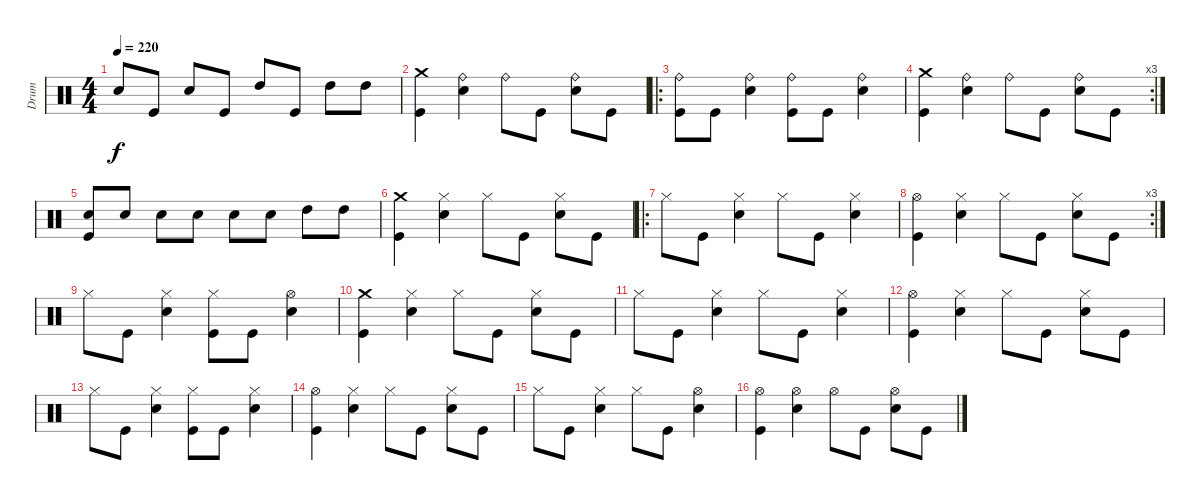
\track ("Drum" "Drum") {instrument percussion}
\staff {score}
\articulation defaults
\ts (4 4)
\tempo 220
\clef neutral
\ks c "Snare (hit) 2".8{dy f} "Kick (hit)".8 "Snare (hit) 2".8 "Kick (hit)".8 "High Tom (hit)".8 "Kick (hit)".8 "High Tom (hit)".8 "High Tom (hit)".8
|
("Crash medium (hit)" "Kick (hit)").4 ("Ride (bell)" "Snare (hit) 2").4 "Ride (bell)".8 "Kick (hit)".8 ("Ride (bell)" "Snare (hit) 2").8 "Kick (hit)".8 |
\ro
("Ride (bell)" "Kick (hit)").8 "Kick (hit)".8 ("Ride (bell)" "Snare (hit) 2").4 ("Ride (bell)" "Kick (hit)").8 "Kick (hit)".8 ("Ride (bell)" "Snare (hit) 2").4 |
\rc 3
("Crash medium (hit)" "Kick (hit)").4 ("Ride (bell)" "Snare (hit) 2").4 "Ride (bell)".8 "Kick (hit)".8 ("Ride (bell)" "Snare (hit) 2").8 "Kick (hit)".8 |
("Snare (hit) 2" "Kick (hit)").8 "Snare (hit) 2".8 "Snare (hit) 2".8 "Snare (hit) 2".8 "Snare (hit) 2".8 "Snare (hit) 2".8 "High Tom (hit)".8 "High Tom (hit)".8 |
("Crash medium (hit)" "Kick (hit)").4 ("Hi-Hat (closed)" "Snare (hit) 2").4 "Hi-Hat (closed)".8 "Kick (hit)".8 ("Hi-Hat (closed)" "Snare (hit) 2").8 "Kick (hit)".8 |
\ro "Hi-Hat (closed)".8 "Kick (hit)".8
("Hi-Hat (closed)" "Snare (hit) 2").4 "Hi-Hat (closed)".8 "Kick (hit)".8 ("Hi-Hat (closed)" "Snare (hit) 2").4 |
\rc 3
("Hi-Hat (open)" "Kick (hit)").4 ("Hi-Hat (closed)" "Snare (hit) 2").4 "Hi-Hat (closed)".8 "Kick (hit)".8 ("Hi-Hat (closed)" "Snare (hit) 2").8 "Kick (hit)".8 |
"Hi-Hat (closed)".8 "Kick (hit)".8 ("Hi-Hat (closed)" "Snare (hit) 2").4 ("Hi-Hat (closed)" "Kick (hit)").8 "Kick (hit)".8 ("Hi-Hat (open)" "Snare (hit) 2").4 |
("Crash medium (hit)" "Kick (hit)").4 ("Hi-Hat (closed)" "Snare (hit) 2").4 "Hi-Hat (closed)".8 "Kick (hit)".8 ("Hi-Hat (closed)" "Snare (hit) 2").8 "Kick (hit)".8 |
"Hi-Hat (closed)".8 "Kick (hit)".8 ("Hi-Hat (closed)" "Snare (hit) 2").4 "Hi-Hat (closed)".8 "Kick (hit)".8 ("Hi-Hat (closed)" "Snare (hit) 2").4 |
("Hi-Hat (open)" "Kick (hit)").4 ("Hi-Hat (closed)" "Snare (hit) 2").4 "Hi-Hat (closed)".8 "Kick (hit)".8 ("Hi-Hat (closed)" "Snare (hit) 2").8 "Kick (hit)".8 |
"Hi-Hat (closed)".8 "Kick (hit)".8 ("Hi-Hat (closed)" "Snare (hit) 2").4 ("Hi-Hat (closed)" "Kick (hit)").8 "Kick (hit)".8 ("Hi-Hat (closed)" "Snare (hit) 2").4 |
("Hi-Hat (open)" "Kick (hit)").4 ("Hi-Hat (closed)" "Snare (hit) 2").4 "Hi-Hat (closed)".8 "Kick (hit)".8 ("Hi-Hat (closed)" "Snare (hit) 2").8 "Kick (hit)".8 |
"Hi-Hat (closed)".8 "Kick (hit)".8 ("Hi-Hat (closed)" "Snare (hit) 2").4 "Hi-Hat (closed)".8 "Kick (hit)".8 ("Hi-Hat (open)" "Snare (hit) 2").4 |
("Hi-Hat (open)" "Kick (hit)").4 ("Hi-Hat (open)" "Snare (hit) 2").4 "Hi-Hat (open)".8 "Kick (hit)".8 ("Hi-Hat (open)" "Snare (hit) 2").8 "Kick (hit)".8
